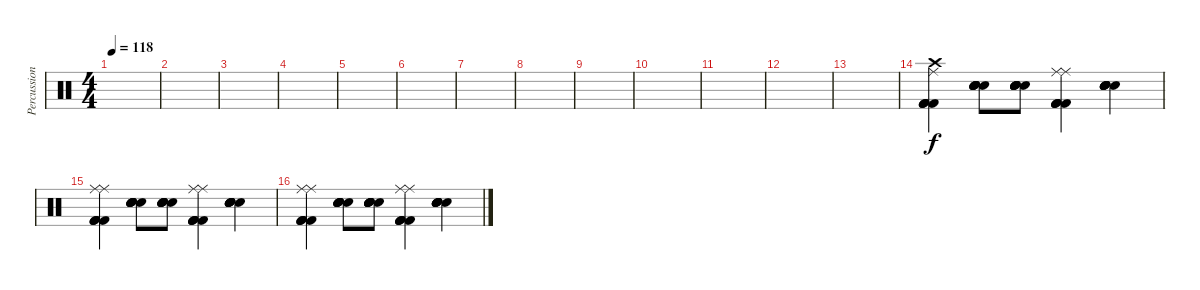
\track ("Percussion" "Percussion") {instrument percussion}
\staff {score}
\articulation defaults
\ts (4 4)
\tempo 118
\clef neutral
\ks c
|
|
|
|
|
|
|
|
|
|
|
|
|
("Crash high (hit)" "Kick (hit) 2" "Kick (hit) 2" "Kick (hit) 2" "Kick (hit) 2" "Ride (middle)").4 ("Electric Snare (hit)" "Electric Snare (hit)" "Electric Snare (hit)" "Electric Snare (hit)" "Electric Snare (hit)" "Electric Snare (hit)").8 ("Electric Snare (hit)" "Electric Snare (hit)" "Electric Snare (hit)" "Electric Snare (hit)" "Electric Snare (hit)" "Electric Snare (hit)").8 ("Ride (middle)" "Kick (hit) 2" "Kick (hit) 2" "Kick (hit) 2" "Kick (hit) 2" "Ride (middle)").4 ("Electric Snare (hit)" "Electric Snare (hit)" "Electric Snare (hit)" "Electric Snare (hit)" "Electric Snare (hit)" "Electric Snare (hit)").4 |
("Ride (middle)" "Kick (hit) 2" "Kick (hit) 2" "Kick (hit) 2" "Kick (hit) 2" "Ride (middle)").4 ("Electric Snare (hit)" "Electric Snare (hit)" "Electric Snare (hit)" "Electric Snare (hit)" "Electric Snare (hit)" "Electric Snare (hit)").8 ("Electric Snare (hit)" "Electric Snare (hit)" "Electric Snare (hit)" "Electric Snare (hit)" "Electric Snare (hit)" "Electric Snare (hit)").8 ("Ride (middle)" "Kick (hit) 2" "Kick (hit) 2" "Kick (hit) 2" "Kick (hit) 2" "Ride (middle)").4 ("Electric Snare (hit)" "Electric Snare (hit)" "Electric Snare (hit)" "Electric Snare (hit)" "Electric Snare (hit)" "Electric Snare (hit)").4 |
("Ride (middle)" "Kick (hit) 2" "Kick (hit) 2" "Kick (hit) 2" "Kick (hit) 2" "Ride (middle)").4 ("Electric Snare (hit)" "Electric Snare (hit)" "Electric Snare (hit)" "Electric Snare (hit)" "Electric Snare (hit)" "Electric Snare (hit)").8 ("Electric Snare (hit)" "Electric Snare (hit)" "Electric Snare (hit)" "Electric Snare (hit)" "Electric Snare (hit)" "Electric Snare (hit)").8 ("Ride (middle)" "Kick (hit) 2" "Kick (hit) 2" "Kick (hit) 2" "Kick (hit) 2" "Ride (middle)").4 ("Electric Snare (hit)" "Electric Snare (hit)" "Electric Snare (hit)" "Electric Snare (hit)" "Electric Snare (hit)" "Electric Snare (hit)").4
